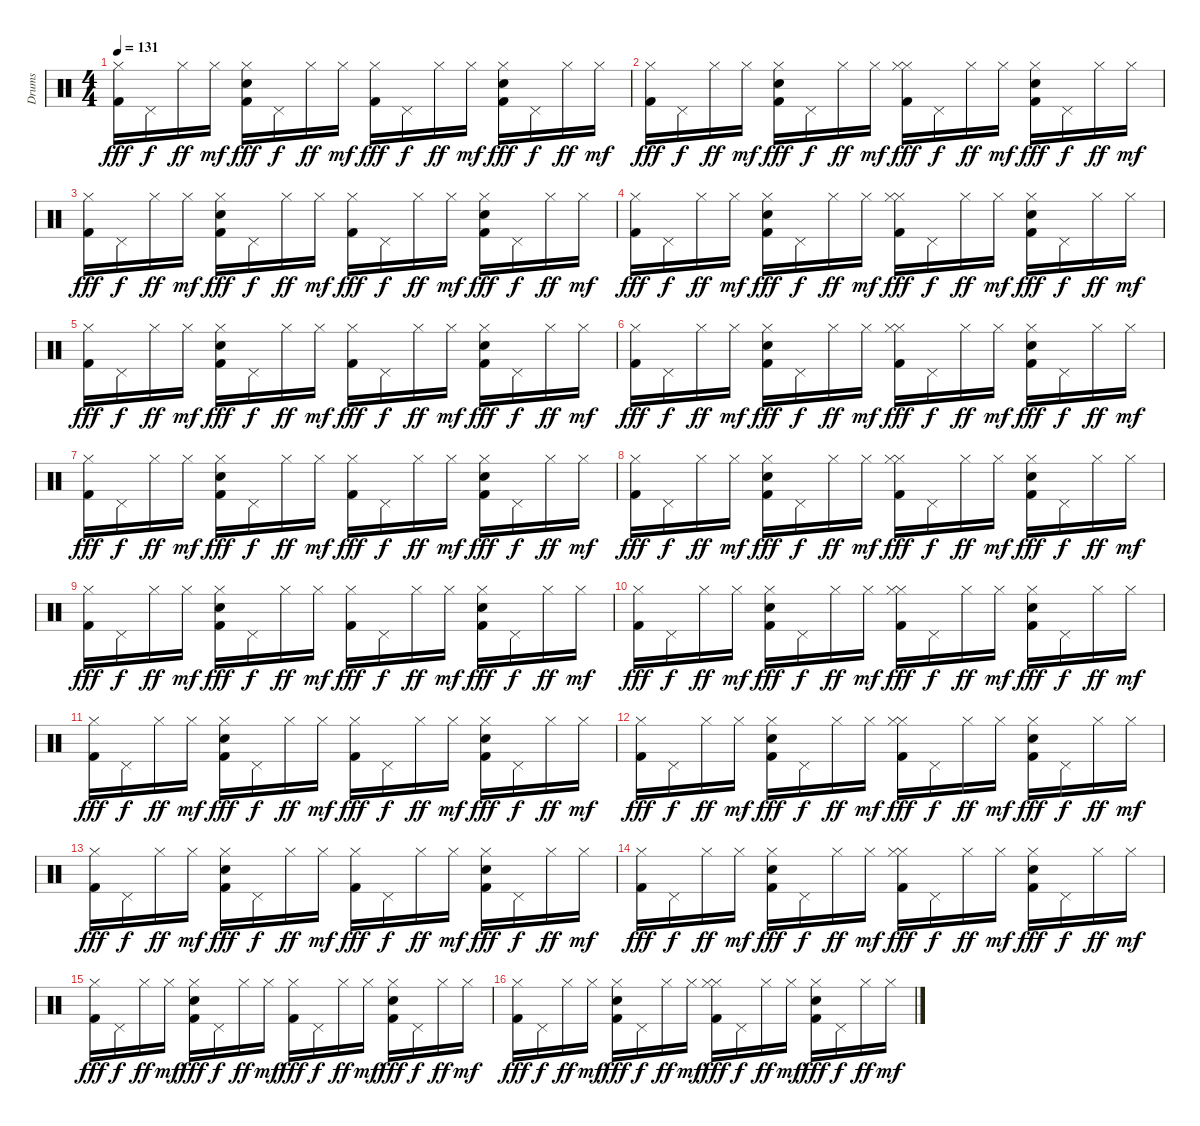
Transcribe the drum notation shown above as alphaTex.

\track ("Drums" "Drums") {instrument percussion}
\staff {score}
\articulation defaults
\ts (4 4)
\tempo 131
\clef neutral
\ks c
("Kick (hit) 2" "Hi-Hat (closed)").16{dy fff} "Pedal Hi-Hat (hit)".16{dy f} "Hi-Hat (closed)".16{dy ff} "Hi-Hat (closed)".16{dy mf} ("Kick (hit) 2" "Hand Clap (hit)" "Hi-Hat (closed)").16{dy fff} "Pedal Hi-Hat (hit)".16{dy f} "Hi-Hat (closed)".16{dy ff} "Hi-Hat (closed)".16{dy mf} ("Kick (hit) 2" "Hi-Hat (closed)").16{dy fff} "Pedal Hi-Hat (hit)".16{dy f} "Hi-Hat (closed)".16{dy ff} "Hi-Hat (closed)".16{dy mf} ("Kick (hit) 2" "Hand Clap (hit)" "Hi-Hat (closed)").16{dy fff} "Pedal Hi-Hat (hit)".16{dy f} "Hi-Hat (closed)".16{dy ff} "Hi-Hat (closed)".16{dy mf} |
("Kick (hit) 2" "Hi-Hat (closed)").16{dy fff} "Pedal Hi-Hat (hit)".16{dy f} "Hi-Hat (closed)".16{dy ff} "Hi-Hat (closed)".16{dy mf} ("Kick (hit) 2" "Hand Clap (hit)" "Hi-Hat (closed)").16{dy fff} "Pedal Hi-Hat (hit)".16{dy f} "Hi-Hat (closed)".16{dy ff} "Hi-Hat (closed)".16{dy mf} ("Kick (hit) 2" "Hi-Hat (closed)" "Hi-Hat (closed)").16{dy fff} "Pedal Hi-Hat (hit)".16{dy f} "Hi-Hat (closed)".16{dy ff} "Hi-Hat (closed)".16{dy mf} ("Kick (hit) 2" "Hand Clap (hit)" "Hi-Hat (closed)").16{dy fff} "Pedal Hi-Hat (hit)".16{dy f} "Hi-Hat (closed)".16{dy ff} "Hi-Hat (closed)".16{dy mf} |
("Kick (hit) 2" "Hi-Hat (closed)").16{dy fff} "Pedal Hi-Hat (hit)".16{dy f} "Hi-Hat (closed)".16{dy ff} "Hi-Hat (closed)".16{dy mf} ("Kick (hit) 2" "Hand Clap (hit)" "Hi-Hat (closed)").16{dy fff} "Pedal Hi-Hat (hit)".16{dy f} "Hi-Hat (closed)".16{dy ff} "Hi-Hat (closed)".16{dy mf} ("Kick (hit) 2" "Hi-Hat (closed)").16{dy fff} "Pedal Hi-Hat (hit)".16{dy f} "Hi-Hat (closed)".16{dy ff} "Hi-Hat (closed)".16{dy mf} ("Kick (hit) 2" "Hand Clap (hit)" "Hi-Hat (closed)").16{dy fff} "Pedal Hi-Hat (hit)".16{dy f} "Hi-Hat (closed)".16{dy ff} "Hi-Hat (closed)".16{dy mf} |
("Kick (hit) 2" "Hi-Hat (closed)").16{dy fff} "Pedal Hi-Hat (hit)".16{dy f} "Hi-Hat (closed)".16{dy ff} "Hi-Hat (closed)".16{dy mf} ("Kick (hit) 2" "Hand Clap (hit)" "Hi-Hat (closed)").16{dy fff} "Pedal Hi-Hat (hit)".16{dy f} "Hi-Hat (closed)".16{dy ff} "Hi-Hat (closed)".16{dy mf} ("Kick (hit) 2" "Hi-Hat (closed)" "Hi-Hat (closed)").16{dy fff} "Pedal Hi-Hat (hit)".16{dy f} "Hi-Hat (closed)".16{dy ff} "Hi-Hat (closed)".16{dy mf} ("Kick (hit) 2" "Hand Clap (hit)" "Hi-Hat (closed)").16{dy fff} "Pedal Hi-Hat (hit)".16{dy f} "Hi-Hat (closed)".16{dy ff} "Hi-Hat (closed)".16{dy mf} |
("Kick (hit) 2" "Hi-Hat (closed)").16{dy fff} "Pedal Hi-Hat (hit)".16{dy f} "Hi-Hat (closed)".16{dy ff} "Hi-Hat (closed)".16{dy mf} ("Kick (hit) 2" "Hand Clap (hit)" "Hi-Hat (closed)").16{dy fff} "Pedal Hi-Hat (hit)".16{dy f} "Hi-Hat (closed)".16{dy ff} "Hi-Hat (closed)".16{dy mf} ("Kick (hit) 2" "Hi-Hat (closed)").16{dy fff} "Pedal Hi-Hat (hit)".16{dy f} "Hi-Hat (closed)".16{dy ff} "Hi-Hat (closed)".16{dy mf} ("Kick (hit) 2" "Hand Clap (hit)" "Hi-Hat (closed)").16{dy fff} "Pedal Hi-Hat (hit)".16{dy f} "Hi-Hat (closed)".16{dy ff} "Hi-Hat (closed)".16{dy mf} |
("Kick (hit) 2" "Hi-Hat (closed)").16{dy fff} "Pedal Hi-Hat (hit)".16{dy f} "Hi-Hat (closed)".16{dy ff} "Hi-Hat (closed)".16{dy mf} ("Kick (hit) 2" "Hand Clap (hit)" "Hi-Hat (closed)").16{dy fff} "Pedal Hi-Hat (hit)".16{dy f} "Hi-Hat (closed)".16{dy ff} "Hi-Hat (closed)".16{dy mf} ("Kick (hit) 2" "Hi-Hat (closed)" "Hi-Hat (closed)").16{dy fff} "Pedal Hi-Hat (hit)".16{dy f} "Hi-Hat (closed)".16{dy ff} "Hi-Hat (closed)".16{dy mf} ("Kick (hit) 2" "Hand Clap (hit)" "Hi-Hat (closed)").16{dy fff} "Pedal Hi-Hat (hit)".16{dy f} "Hi-Hat (closed)".16{dy ff} "Hi-Hat (closed)".16{dy mf} |
("Kick (hit) 2" "Hi-Hat (closed)").16{dy fff} "Pedal Hi-Hat (hit)".16{dy f} "Hi-Hat (closed)".16{dy ff} "Hi-Hat (closed)".16{dy mf} ("Kick (hit) 2" "Hand Clap (hit)" "Hi-Hat (closed)").16{dy fff} "Pedal Hi-Hat (hit)".16{dy f} "Hi-Hat (closed)".16{dy ff} "Hi-Hat (closed)".16{dy mf} ("Kick (hit) 2" "Hi-Hat (closed)").16{dy fff} "Pedal Hi-Hat (hit)".16{dy f} "Hi-Hat (closed)".16{dy ff} "Hi-Hat (closed)".16{dy mf} ("Kick (hit) 2" "Hand Clap (hit)" "Hi-Hat (closed)").16{dy fff} "Pedal Hi-Hat (hit)".16{dy f} "Hi-Hat (closed)".16{dy ff} "Hi-Hat (closed)".16{dy mf} |
("Kick (hit) 2" "Hi-Hat (closed)").16{dy fff} "Pedal Hi-Hat (hit)".16{dy f} "Hi-Hat (closed)".16{dy ff} "Hi-Hat (closed)".16{dy mf} ("Kick (hit) 2" "Hand Clap (hit)" "Hi-Hat (closed)").16{dy fff} "Pedal Hi-Hat (hit)".16{dy f} "Hi-Hat (closed)".16{dy ff} "Hi-Hat (closed)".16{dy mf} ("Kick (hit) 2" "Hi-Hat (closed)" "Hi-Hat (closed)").16{dy fff} "Pedal Hi-Hat (hit)".16{dy f} "Hi-Hat (closed)".16{dy ff} "Hi-Hat (closed)".16{dy mf} ("Kick (hit) 2" "Hand Clap (hit)" "Hi-Hat (closed)").16{dy fff} "Pedal Hi-Hat (hit)".16{dy f} "Hi-Hat (closed)".16{dy ff} "Hi-Hat (closed)".16{dy mf} |
("Kick (hit) 2" "Hi-Hat (closed)").16{dy fff} "Pedal Hi-Hat (hit)".16{dy f} "Hi-Hat (closed)".16{dy ff} "Hi-Hat (closed)".16{dy mf} ("Kick (hit) 2" "Hand Clap (hit)" "Hi-Hat (closed)").16{dy fff} "Pedal Hi-Hat (hit)".16{dy f} "Hi-Hat (closed)".16{dy ff} "Hi-Hat (closed)".16{dy mf} ("Kick (hit) 2" "Hi-Hat (closed)").16{dy fff} "Pedal Hi-Hat (hit)".16{dy f} "Hi-Hat (closed)".16{dy ff} "Hi-Hat (closed)".16{dy mf} ("Kick (hit) 2" "Hand Clap (hit)" "Hi-Hat (closed)").16{dy fff} "Pedal Hi-Hat (hit)".16{dy f} "Hi-Hat (closed)".16{dy ff} "Hi-Hat (closed)".16{dy mf} |
("Kick (hit) 2" "Hi-Hat (closed)").16{dy fff} "Pedal Hi-Hat (hit)".16{dy f} "Hi-Hat (closed)".16{dy ff} "Hi-Hat (closed)".16{dy mf} ("Kick (hit) 2" "Hand Clap (hit)" "Hi-Hat (closed)").16{dy fff} "Pedal Hi-Hat (hit)".16{dy f} "Hi-Hat (closed)".16{dy ff} "Hi-Hat (closed)".16{dy mf} ("Kick (hit) 2" "Hi-Hat (closed)" "Hi-Hat (closed)").16{dy fff} "Pedal Hi-Hat (hit)".16{dy f} "Hi-Hat (closed)".16{dy ff} "Hi-Hat (closed)".16{dy mf} ("Kick (hit) 2" "Hand Clap (hit)" "Hi-Hat (closed)").16{dy fff} "Pedal Hi-Hat (hit)".16{dy f} "Hi-Hat (closed)".16{dy ff} "Hi-Hat (closed)".16{dy mf} |
("Kick (hit) 2" "Hi-Hat (closed)").16{dy fff} "Pedal Hi-Hat (hit)".16{dy f} "Hi-Hat (closed)".16{dy ff} "Hi-Hat (closed)".16{dy mf} ("Kick (hit) 2" "Hand Clap (hit)" "Hi-Hat (closed)").16{dy fff} "Pedal Hi-Hat (hit)".16{dy f} "Hi-Hat (closed)".16{dy ff} "Hi-Hat (closed)".16{dy mf} ("Kick (hit) 2" "Hi-Hat (closed)").16{dy fff} "Pedal Hi-Hat (hit)".16{dy f} "Hi-Hat (closed)".16{dy ff} "Hi-Hat (closed)".16{dy mf} ("Kick (hit) 2" "Hand Clap (hit)" "Hi-Hat (closed)").16{dy fff} "Pedal Hi-Hat (hit)".16{dy f} "Hi-Hat (closed)".16{dy ff} "Hi-Hat (closed)".16{dy mf} |
("Kick (hit) 2" "Hi-Hat (closed)").16{dy fff} "Pedal Hi-Hat (hit)".16{dy f} "Hi-Hat (closed)".16{dy ff} "Hi-Hat (closed)".16{dy mf} ("Kick (hit) 2" "Hand Clap (hit)" "Hi-Hat (closed)").16{dy fff} "Pedal Hi-Hat (hit)".16{dy f} "Hi-Hat (closed)".16{dy ff} "Hi-Hat (closed)".16{dy mf} ("Kick (hit) 2" "Hi-Hat (closed)" "Hi-Hat (closed)").16{dy fff} "Pedal Hi-Hat (hit)".16{dy f} "Hi-Hat (closed)".16{dy ff} "Hi-Hat (closed)".16{dy mf} ("Kick (hit) 2" "Hand Clap (hit)" "Hi-Hat (closed)").16{dy fff} "Pedal Hi-Hat (hit)".16{dy f} "Hi-Hat (closed)".16{dy ff} "Hi-Hat (closed)".16{dy mf} |
("Kick (hit) 2" "Hi-Hat (closed)").16{dy fff} "Pedal Hi-Hat (hit)".16{dy f} "Hi-Hat (closed)".16{dy ff} "Hi-Hat (closed)".16{dy mf} ("Kick (hit) 2" "Hand Clap (hit)" "Hi-Hat (closed)").16{dy fff} "Pedal Hi-Hat (hit)".16{dy f} "Hi-Hat (closed)".16{dy ff} "Hi-Hat (closed)".16{dy mf} ("Kick (hit) 2" "Hi-Hat (closed)").16{dy fff} "Pedal Hi-Hat (hit)".16{dy f} "Hi-Hat (closed)".16{dy ff} "Hi-Hat (closed)".16{dy mf} ("Kick (hit) 2" "Hand Clap (hit)" "Hi-Hat (closed)").16{dy fff} "Pedal Hi-Hat (hit)".16{dy f} "Hi-Hat (closed)".16{dy ff} "Hi-Hat (closed)".16{dy mf} |
("Kick (hit) 2" "Hi-Hat (closed)").16{dy fff} "Pedal Hi-Hat (hit)".16{dy f} "Hi-Hat (closed)".16{dy ff} "Hi-Hat (closed)".16{dy mf} ("Kick (hit) 2" "Hand Clap (hit)" "Hi-Hat (closed)").16{dy fff} "Pedal Hi-Hat (hit)".16{dy f} "Hi-Hat (closed)".16{dy ff} "Hi-Hat (closed)".16{dy mf} ("Kick (hit) 2" "Hi-Hat (closed)" "Hi-Hat (closed)").16{dy fff} "Pedal Hi-Hat (hit)".16{dy f} "Hi-Hat (closed)".16{dy ff} "Hi-Hat (closed)".16{dy mf} ("Kick (hit) 2" "Hand Clap (hit)" "Hi-Hat (closed)").16{dy fff} "Pedal Hi-Hat (hit)".16{dy f} "Hi-Hat (closed)".16{dy ff} "Hi-Hat (closed)".16{dy mf} |
("Kick (hit) 2" "Hi-Hat (closed)").16{dy fff} "Pedal Hi-Hat (hit)".16{dy f} "Hi-Hat (closed)".16{dy ff} "Hi-Hat (closed)".16{dy mf} ("Kick (hit) 2" "Hand Clap (hit)" "Hi-Hat (closed)").16{dy fff} "Pedal Hi-Hat (hit)".16{dy f} "Hi-Hat (closed)".16{dy ff} "Hi-Hat (closed)".16{dy mf} ("Kick (hit) 2" "Hi-Hat (closed)").16{dy fff} "Pedal Hi-Hat (hit)".16{dy f} "Hi-Hat (closed)".16{dy ff} "Hi-Hat (closed)".16{dy mf} ("Kick (hit) 2" "Hand Clap (hit)" "Hi-Hat (closed)").16{dy fff} "Pedal Hi-Hat (hit)".16{dy f} "Hi-Hat (closed)".16{dy ff} "Hi-Hat (closed)".16{dy mf} |
("Kick (hit) 2" "Hi-Hat (closed)").16{dy fff} "Pedal Hi-Hat (hit)".16{dy f} "Hi-Hat (closed)".16{dy ff} "Hi-Hat (closed)".16{dy mf} ("Kick (hit) 2" "Hand Clap (hit)" "Hi-Hat (closed)").16{dy fff} "Pedal Hi-Hat (hit)".16{dy f} "Hi-Hat (closed)".16{dy ff} "Hi-Hat (closed)".16{dy mf} ("Kick (hit) 2" "Hi-Hat (closed)" "Hi-Hat (closed)").16{dy fff} "Pedal Hi-Hat (hit)".16{dy f} "Hi-Hat (closed)".16{dy ff} "Hi-Hat (closed)".16{dy mf} ("Kick (hit) 2" "Hand Clap (hit)" "Hi-Hat (closed)").16{dy fff} "Pedal Hi-Hat (hit)".16{dy f} "Hi-Hat (closed)".16{dy ff} "Hi-Hat (closed)".16{dy mf}
